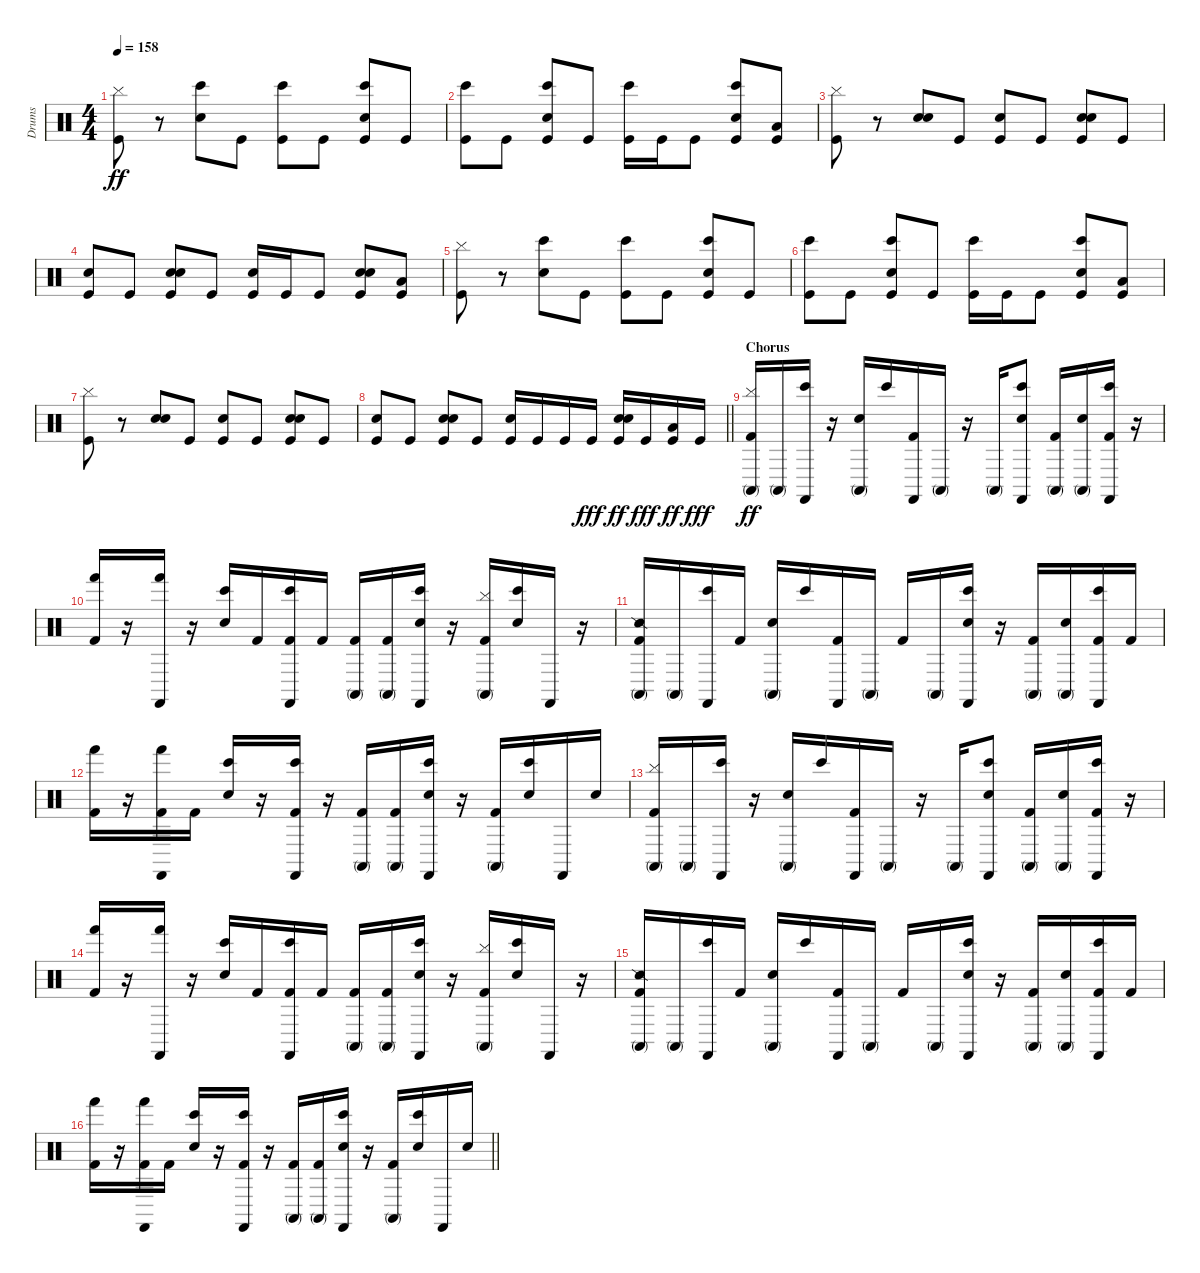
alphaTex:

\track ("Drums" "Drums") {instrument percussion}
\staff {score}
\articulation defaults
\ts (4 4)
\tempo 158
\clef neutral
\ks c
("Cymbal (hit)" "Kick (hit)").8{dy ff} r.8 ("Bongo High (hit)" "Snare (hit) 2").8 "Kick (hit)".8 ("Bongo High (hit)" "Kick (hit)").8 "Kick (hit)".8 ("Bongo High (hit)" "Kick (hit)" "Snare (hit) 2").8 "Kick (hit)".8 |
("Bongo High (hit)" "Kick (hit)").8 "Kick (hit)".8 ("Bongo High (hit)" "Kick (hit)" "Snare (hit) 2").8 "Kick (hit)".8 ("Bongo High (hit)" "Kick (hit)").16 "Kick (hit)".16 "Kick (hit)".8 ("Bongo High (hit)" "Kick (hit)" "Snare (hit) 2").8 ("Kick (hit)" "Low Tom (hit)").8 |
("Cymbal (hit)" "Kick (hit)").8 r.8 ("Snare (hit)" "Snare (hit) 2").8 "Kick (hit)".8 ("Snare (hit)" "Kick (hit)").8 "Kick (hit)".8 ("Snare (hit)" "Kick (hit)" "Snare (hit) 2").8 "Kick (hit)".8 |
("Snare (hit)" "Kick (hit)").8 "Kick (hit)".8 ("Snare (hit)" "Kick (hit)" "Snare (hit) 2").8 "Kick (hit)".8 ("Snare (hit)" "Kick (hit)").16 "Kick (hit)".16 "Kick (hit)".8 ("Snare (hit)" "Kick (hit)" "Snare (hit) 2").8 ("Kick (hit)" "Low Tom (hit)").8 |
("Cymbal (hit)" "Kick (hit)").8 r.8 ("Bongo High (hit)" "Snare (hit) 2").8 "Kick (hit)".8 ("Bongo High (hit)" "Kick (hit)").8 "Kick (hit)".8 ("Bongo High (hit)" "Kick (hit)" "Snare (hit) 2").8 "Kick (hit)".8 |
("Bongo High (hit)" "Kick (hit)").8 "Kick (hit)".8 ("Bongo High (hit)" "Kick (hit)" "Snare (hit) 2").8 "Kick (hit)".8 ("Bongo High (hit)" "Kick (hit)").16 "Kick (hit)".16 "Kick (hit)".8 ("Bongo High (hit)" "Kick (hit)" "Snare (hit) 2").8 ("Kick (hit)" "Low Tom (hit)").8 |
("Cymbal (hit)" "Kick (hit)").8 r.8 ("Snare (hit)" "Snare (hit) 2").8 "Kick (hit)".8 ("Snare (hit)" "Kick (hit)").8 "Kick (hit)".8 ("Snare (hit)" "Kick (hit)" "Snare (hit) 2").8 "Kick (hit)".8 |
\barLineRight lightlight
("Snare (hit)" "Kick (hit)").8 "Kick (hit)".8 ("Snare (hit)" "Kick (hit)" "Snare (hit) 2").8 "Kick (hit)".8 ("Snare (hit)" "Kick (hit)").16 "Kick (hit)".16 "Kick (hit)".16 "Kick (hit)".16{dy fff} ("Snare (hit)" "Kick (hit)" "Snare (hit) 2").16{dy ff} "Kick (hit)".16{dy fff} ("Kick (hit)" "Low Tom (hit)").16{dy ff} "Kick (hit)".16{dy fff} |
\section ("" "Chorus")
("Cymbal (hit)" "Kick (hit) 2" "Conga high (mute)").16{dy ff} "Conga high (mute)".16 ("Bongo High (hit)" "Castanets (hit)").16 r.16 ("Snare (hit) 2" "Conga high (mute)").16 "Bongo High (hit)".16 ("Kick (hit) 2" "Castanets (hit)").16 "Conga high (mute)".16 r.16 "Conga high (mute)".16 ("Snare (hit) 2" "Bongo High (hit)" "Castanets (hit)").8 ("Kick (hit) 2" "Conga high (mute)").16 ("Snare (hit) 2" "Conga high (mute)").16 ("Kick (hit) 2" "Bongo High (hit)" "Castanets (hit)").16 r.16 |
("Kick (hit) 2" "Hand (hit)").16 r.16 ("Hand (hit)" "Castanets (hit)").16 r.16 ("Snare (hit) 2" "Bongo High (hit)").16 "Kick (hit) 2".16 ("Kick (hit) 2" "Bongo High (hit)" "Castanets (hit)").16 "Kick (hit) 2".16 ("Kick (hit) 2" "Conga high (mute)").16 ("Kick (hit) 2" "Conga high (mute)").16 ("Snare (hit) 2" "Bongo High (hit)" "Castanets (hit)").16 r.16 ("Cymbal (hit)" "Kick (hit) 2" "Conga high (mute)").16 ("Snare (hit) 2" "Bongo High (hit)").16 "Castanets (hit)".16 r.16 |
("Snare (side stick) 2" "Kick (hit) 2" "Conga high (mute)").16 "Conga high (mute)".16 ("Bongo High (hit)" "Castanets (hit)").16 "Kick (hit) 2".16 ("Snare (hit) 2" "Conga high (mute)").16 "Bongo High (hit)".16 ("Kick (hit) 2" "Castanets (hit)").16 "Conga high (mute)".16 "Kick (hit) 2".16 "Conga high (mute)".16 ("Snare (hit) 2" "Bongo High (hit)" "Castanets (hit)").16 r.16 ("Kick (hit) 2" "Conga high (mute)").16 ("Snare (hit) 2" "Conga high (mute)").16 ("Kick (hit) 2" "Bongo High (hit)" "Castanets (hit)").16 "Kick (hit) 2".16 |
("Kick (hit) 2" "Hand (hit)").16 r.16 ("Kick (hit) 2" "Hand (hit)" "Castanets (hit)").16 "Kick (hit) 2".16 ("Snare (hit) 2" "Bongo High (hit)").16 r.16 ("Kick (hit) 2" "Bongo High (hit)" "Castanets (hit)").16 r.16 ("Kick (hit) 2" "Conga high (mute)").16 ("Kick (hit) 2" "Conga high (mute)").16 ("Snare (hit) 2" "Bongo High (hit)" "Castanets (hit)").16 r.16 ("Kick (hit) 2" "Conga high (mute)").16 ("Snare (hit) 2" "Bongo High (hit)").16 "Castanets (hit)".16 "Snare (hit) 2".16 |
("Cymbal (hit)" "Kick (hit) 2" "Conga high (mute)").16 "Conga high (mute)".16 ("Bongo High (hit)" "Castanets (hit)").16 r.16 ("Snare (hit) 2" "Conga high (mute)").16 "Bongo High (hit)".16 ("Kick (hit) 2" "Castanets (hit)").16 "Conga high (mute)".16 r.16 "Conga high (mute)".16 ("Snare (hit) 2" "Bongo High (hit)" "Castanets (hit)").8 ("Kick (hit) 2" "Conga high (mute)").16 ("Snare (hit) 2" "Conga high (mute)").16 ("Kick (hit) 2" "Bongo High (hit)" "Castanets (hit)").16 r.16 |
("Kick (hit) 2" "Hand (hit)").16 r.16 ("Hand (hit)" "Castanets (hit)").16 r.16 ("Snare (hit) 2" "Bongo High (hit)").16 "Kick (hit) 2".16 ("Kick (hit) 2" "Bongo High (hit)" "Castanets (hit)").16 "Kick (hit) 2".16 ("Kick (hit) 2" "Conga high (mute)").16 ("Kick (hit) 2" "Conga high (mute)").16 ("Snare (hit) 2" "Bongo High (hit)" "Castanets (hit)").16 r.16 ("Cymbal (hit)" "Kick (hit) 2" "Conga high (mute)").16 ("Snare (hit) 2" "Bongo High (hit)").16 "Castanets (hit)".16 r.16 |
("Snare (side stick) 2" "Kick (hit) 2" "Conga high (mute)").16 "Conga high (mute)".16 ("Bongo High (hit)" "Castanets (hit)").16 "Kick (hit) 2".16 ("Snare (hit) 2" "Conga high (mute)").16 "Bongo High (hit)".16 ("Kick (hit) 2" "Castanets (hit)").16 "Conga high (mute)".16 "Kick (hit) 2".16 "Conga high (mute)".16 ("Snare (hit) 2" "Bongo High (hit)" "Castanets (hit)").16 r.16 ("Kick (hit) 2" "Conga high (mute)").16 ("Snare (hit) 2" "Conga high (mute)").16 ("Kick (hit) 2" "Bongo High (hit)" "Castanets (hit)").16 "Kick (hit) 2".16 |
\barLineRight lightlight
("Kick (hit) 2" "Hand (hit)").16 r.16 ("Kick (hit) 2" "Hand (hit)" "Castanets (hit)").16 "Kick (hit) 2".16 ("Snare (hit) 2" "Bongo High (hit)").16 r.16 ("Kick (hit) 2" "Bongo High (hit)" "Castanets (hit)").16 r.16 ("Kick (hit) 2" "Conga high (mute)").16 ("Kick (hit) 2" "Conga high (mute)").16 ("Snare (hit) 2" "Bongo High (hit)" "Castanets (hit)").16 r.16 ("Kick (hit) 2" "Conga high (mute)").16 ("Snare (hit) 2" "Bongo High (hit)").16 "Castanets (hit)".16 "Snare (hit) 2".16
